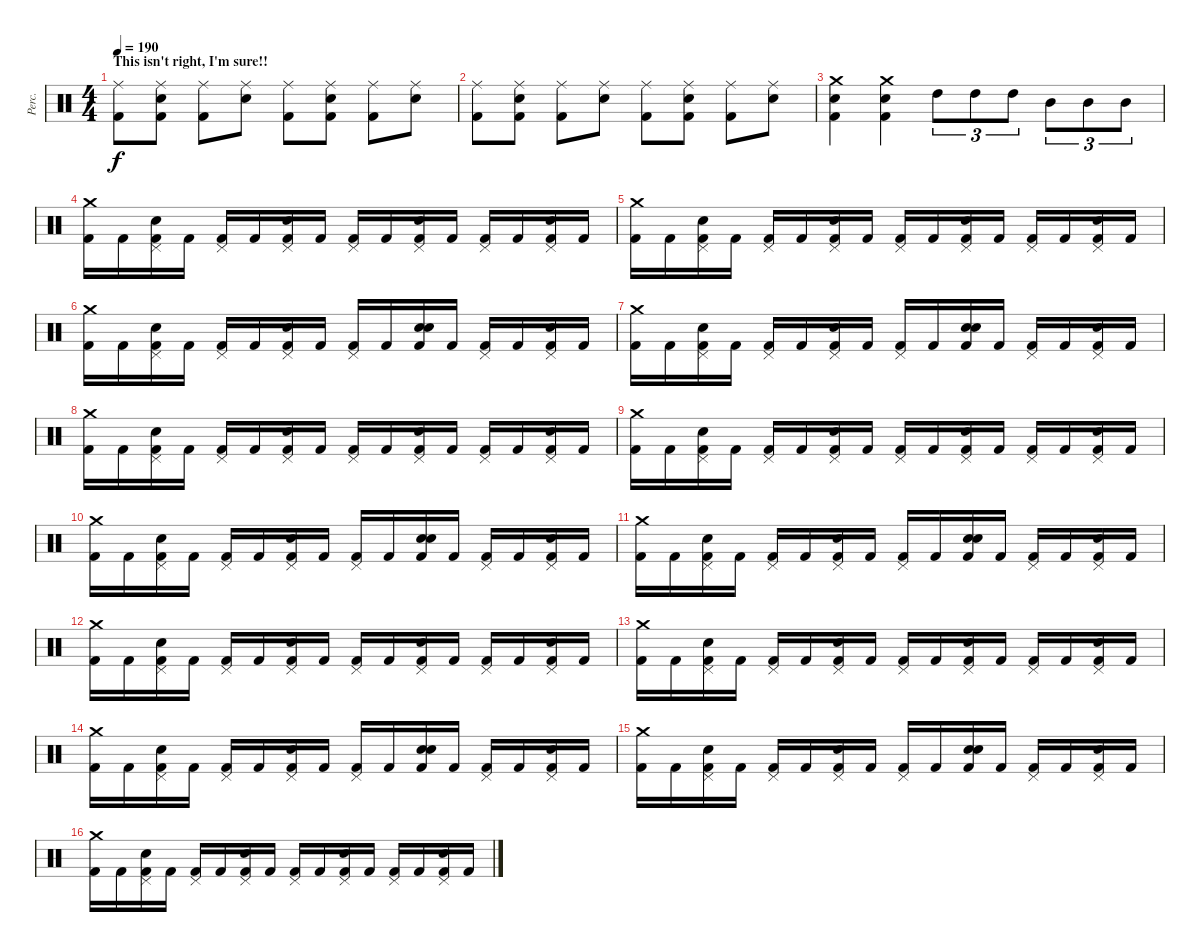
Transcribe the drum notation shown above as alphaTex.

\track ("Perc." "Perc.") {instrument percussion}
\staff {score}
\articulation defaults
\ts (4 4)
\section ("" "This isn't right, I'm sure!!")
\tempo 190
\clef neutral
\ks c
("Kick (hit) 2" "Ride (middle)").8{dy f} ("Kick (hit) 2" "Snare (hit) 2" "Ride (middle)").8 ("Kick (hit) 2" "Ride (middle)").8 ("Snare (hit) 2" "Ride (middle)").8 ("Kick (hit) 2" "Ride (middle)").8 ("Kick (hit) 2" "Snare (hit) 2" "Ride (middle)").8 ("Kick (hit) 2" "Ride (middle)").8 ("Snare (hit) 2" "Ride (middle)").8 |
("Kick (hit) 2" "Ride (middle)").8 ("Kick (hit) 2" "Snare (hit) 2" "Ride (middle)").8 ("Kick (hit) 2" "Ride (middle)").8 ("Snare (hit) 2" "Ride (middle)").8 ("Kick (hit) 2" "Ride (middle)").8 ("Kick (hit) 2" "Snare (hit) 2" "Ride (middle)").8 ("Kick (hit) 2" "Ride (middle)").8 ("Snare (hit) 2" "Ride (middle)").8 |
("Crash medium (hit)" "Kick (hit) 2" "Snare (hit) 2").4 ("Crash medium (hit)" "Kick (hit) 2" "Snare (hit) 2").4 "High Tom (hit)".8{tu (3 2)} "High Tom (hit)".8{tu (3 2)} "High Tom (hit)".8{tu (3 2)} "Mid Tom (hit)".8{tu (3 2)} "Mid Tom (hit)".8{tu (3 2)} "Mid Tom (hit)".8{tu (3 2)} |
("Crash medium (hit)" "Kick (hit) 2").16 "Kick (hit) 2".16 ("Snare (hit) 2" "Kick (hit) 2" "Pedal Hi-Hat (hit)").16 "Kick (hit) 2".16 ("Kick (hit) 2" "Pedal Hi-Hat (hit)").16 "Kick (hit) 2".16 ("Snare (hit) 2" "Kick (hit) 2" "Pedal Hi-Hat (hit)").16 "Kick (hit) 2".16 ("Kick (hit) 2" "Pedal Hi-Hat (hit)").16 "Kick (hit) 2".16 ("Snare (hit) 2" "Kick (hit) 2" "Pedal Hi-Hat (hit)").16 "Kick (hit) 2".16 ("Kick (hit) 2" "Pedal Hi-Hat (hit)").16 "Kick (hit) 2".16 ("Snare (hit) 2" "Kick (hit) 2" "Pedal Hi-Hat (hit)").16 "Kick (hit) 2".16 |
("Crash medium (hit)" "Kick (hit) 2").16 "Kick (hit) 2".16 ("Snare (hit) 2" "Kick (hit) 2" "Pedal Hi-Hat (hit)").16 "Kick (hit) 2".16 ("Kick (hit) 2" "Pedal Hi-Hat (hit)").16 "Kick (hit) 2".16 ("Snare (hit) 2" "Kick (hit) 2" "Pedal Hi-Hat (hit)").16 "Kick (hit) 2".16 ("Kick (hit) 2" "Pedal Hi-Hat (hit)").16 "Kick (hit) 2".16 ("Snare (hit) 2" "Kick (hit) 2" "Pedal Hi-Hat (hit)").16 "Kick (hit) 2".16 ("Kick (hit) 2" "Pedal Hi-Hat (hit)").16 "Kick (hit) 2".16 ("Snare (hit) 2" "Kick (hit) 2" "Pedal Hi-Hat (hit)").16 "Kick (hit) 2".16 |
("Crash medium (hit)" "Kick (hit) 2").16 "Kick (hit) 2".16 ("Snare (hit) 2" "Kick (hit) 2" "Pedal Hi-Hat (hit)").16 "Kick (hit) 2".16 ("Kick (hit) 2" "Pedal Hi-Hat (hit)").16 "Kick (hit) 2".16 ("Snare (hit) 2" "Kick (hit) 2" "Pedal Hi-Hat (hit)").16 "Kick (hit) 2".16 ("Kick (hit) 2" "Pedal Hi-Hat (hit)").16 "Kick (hit) 2".16 ("Snare (hit) 2" "Kick (hit) 2" "Snare (hit)").16 "Kick (hit) 2".16 ("Kick (hit) 2" "Pedal Hi-Hat (hit)").16 "Kick (hit) 2".16 ("Snare (hit) 2" "Kick (hit) 2" "Pedal Hi-Hat (hit)").16 "Kick (hit) 2".16 |
("Crash medium (hit)" "Kick (hit) 2").16 "Kick (hit) 2".16 ("Snare (hit) 2" "Kick (hit) 2" "Pedal Hi-Hat (hit)").16 "Kick (hit) 2".16 ("Kick (hit) 2" "Pedal Hi-Hat (hit)").16 "Kick (hit) 2".16 ("Snare (hit) 2" "Kick (hit) 2" "Pedal Hi-Hat (hit)").16 "Kick (hit) 2".16 ("Kick (hit) 2" "Pedal Hi-Hat (hit)").16 "Kick (hit) 2".16 ("Snare (hit) 2" "Kick (hit) 2" "Snare (hit)").16 "Kick (hit) 2".16 ("Kick (hit) 2" "Pedal Hi-Hat (hit)").16 "Kick (hit) 2".16 ("Snare (hit) 2" "Kick (hit) 2" "Pedal Hi-Hat (hit)").16 "Kick (hit) 2".16 |
("Crash medium (hit)" "Kick (hit) 2").16 "Kick (hit) 2".16 ("Snare (hit) 2" "Kick (hit) 2" "Pedal Hi-Hat (hit)").16 "Kick (hit) 2".16 ("Kick (hit) 2" "Pedal Hi-Hat (hit)").16 "Kick (hit) 2".16 ("Snare (hit) 2" "Kick (hit) 2" "Pedal Hi-Hat (hit)").16 "Kick (hit) 2".16 ("Kick (hit) 2" "Pedal Hi-Hat (hit)").16 "Kick (hit) 2".16 ("Snare (hit) 2" "Kick (hit) 2" "Pedal Hi-Hat (hit)").16 "Kick (hit) 2".16 ("Kick (hit) 2" "Pedal Hi-Hat (hit)").16 "Kick (hit) 2".16 ("Snare (hit) 2" "Kick (hit) 2" "Pedal Hi-Hat (hit)").16 "Kick (hit) 2".16 |
("Crash medium (hit)" "Kick (hit) 2").16 "Kick (hit) 2".16 ("Snare (hit) 2" "Kick (hit) 2" "Pedal Hi-Hat (hit)").16 "Kick (hit) 2".16 ("Kick (hit) 2" "Pedal Hi-Hat (hit)").16 "Kick (hit) 2".16 ("Snare (hit) 2" "Kick (hit) 2" "Pedal Hi-Hat (hit)").16 "Kick (hit) 2".16 ("Kick (hit) 2" "Pedal Hi-Hat (hit)").16 "Kick (hit) 2".16 ("Snare (hit) 2" "Kick (hit) 2" "Pedal Hi-Hat (hit)").16 "Kick (hit) 2".16 ("Kick (hit) 2" "Pedal Hi-Hat (hit)").16 "Kick (hit) 2".16 ("Snare (hit) 2" "Kick (hit) 2" "Pedal Hi-Hat (hit)").16 "Kick (hit) 2".16 |
("Crash medium (hit)" "Kick (hit) 2").16 "Kick (hit) 2".16 ("Snare (hit) 2" "Kick (hit) 2" "Pedal Hi-Hat (hit)").16 "Kick (hit) 2".16 ("Kick (hit) 2" "Pedal Hi-Hat (hit)").16 "Kick (hit) 2".16 ("Snare (hit) 2" "Kick (hit) 2" "Pedal Hi-Hat (hit)").16 "Kick (hit) 2".16 ("Kick (hit) 2" "Pedal Hi-Hat (hit)").16 "Kick (hit) 2".16 ("Snare (hit) 2" "Kick (hit) 2" "Snare (hit)").16 "Kick (hit) 2".16 ("Kick (hit) 2" "Pedal Hi-Hat (hit)").16 "Kick (hit) 2".16 ("Snare (hit) 2" "Kick (hit) 2" "Pedal Hi-Hat (hit)").16 "Kick (hit) 2".16 |
("Crash medium (hit)" "Kick (hit) 2").16 "Kick (hit) 2".16 ("Snare (hit) 2" "Kick (hit) 2" "Pedal Hi-Hat (hit)").16 "Kick (hit) 2".16 ("Kick (hit) 2" "Pedal Hi-Hat (hit)").16 "Kick (hit) 2".16 ("Snare (hit) 2" "Kick (hit) 2" "Pedal Hi-Hat (hit)").16 "Kick (hit) 2".16 ("Kick (hit) 2" "Pedal Hi-Hat (hit)").16 "Kick (hit) 2".16 ("Snare (hit) 2" "Kick (hit) 2" "Snare (hit)").16 "Kick (hit) 2".16 ("Kick (hit) 2" "Pedal Hi-Hat (hit)").16 "Kick (hit) 2".16 ("Snare (hit) 2" "Kick (hit) 2" "Pedal Hi-Hat (hit)").16 "Kick (hit) 2".16 |
("Crash medium (hit)" "Kick (hit) 2").16 "Kick (hit) 2".16 ("Snare (hit) 2" "Kick (hit) 2" "Pedal Hi-Hat (hit)").16 "Kick (hit) 2".16 ("Kick (hit) 2" "Pedal Hi-Hat (hit)").16 "Kick (hit) 2".16 ("Snare (hit) 2" "Kick (hit) 2" "Pedal Hi-Hat (hit)").16 "Kick (hit) 2".16 ("Kick (hit) 2" "Pedal Hi-Hat (hit)").16 "Kick (hit) 2".16 ("Snare (hit) 2" "Kick (hit) 2" "Pedal Hi-Hat (hit)").16 "Kick (hit) 2".16 ("Kick (hit) 2" "Pedal Hi-Hat (hit)").16 "Kick (hit) 2".16 ("Snare (hit) 2" "Kick (hit) 2" "Pedal Hi-Hat (hit)").16 "Kick (hit) 2".16 |
("Crash medium (hit)" "Kick (hit) 2").16 "Kick (hit) 2".16 ("Snare (hit) 2" "Kick (hit) 2" "Pedal Hi-Hat (hit)").16 "Kick (hit) 2".16 ("Kick (hit) 2" "Pedal Hi-Hat (hit)").16 "Kick (hit) 2".16 ("Snare (hit) 2" "Kick (hit) 2" "Pedal Hi-Hat (hit)").16 "Kick (hit) 2".16 ("Kick (hit) 2" "Pedal Hi-Hat (hit)").16 "Kick (hit) 2".16 ("Snare (hit) 2" "Kick (hit) 2" "Pedal Hi-Hat (hit)").16 "Kick (hit) 2".16 ("Kick (hit) 2" "Pedal Hi-Hat (hit)").16 "Kick (hit) 2".16 ("Snare (hit) 2" "Kick (hit) 2" "Pedal Hi-Hat (hit)").16 "Kick (hit) 2".16 |
("Crash medium (hit)" "Kick (hit) 2").16 "Kick (hit) 2".16 ("Snare (hit) 2" "Kick (hit) 2" "Pedal Hi-Hat (hit)").16 "Kick (hit) 2".16 ("Kick (hit) 2" "Pedal Hi-Hat (hit)").16 "Kick (hit) 2".16 ("Snare (hit) 2" "Kick (hit) 2" "Pedal Hi-Hat (hit)").16 "Kick (hit) 2".16 ("Kick (hit) 2" "Pedal Hi-Hat (hit)").16 "Kick (hit) 2".16 ("Snare (hit) 2" "Kick (hit) 2" "Snare (hit)").16 "Kick (hit) 2".16 ("Kick (hit) 2" "Pedal Hi-Hat (hit)").16 "Kick (hit) 2".16 ("Snare (hit) 2" "Kick (hit) 2" "Pedal Hi-Hat (hit)").16 "Kick (hit) 2".16 |
("Crash medium (hit)" "Kick (hit) 2").16 "Kick (hit) 2".16 ("Snare (hit) 2" "Kick (hit) 2" "Pedal Hi-Hat (hit)").16 "Kick (hit) 2".16 ("Kick (hit) 2" "Pedal Hi-Hat (hit)").16 "Kick (hit) 2".16 ("Snare (hit) 2" "Kick (hit) 2" "Pedal Hi-Hat (hit)").16 "Kick (hit) 2".16 ("Kick (hit) 2" "Pedal Hi-Hat (hit)").16 "Kick (hit) 2".16 ("Snare (hit) 2" "Kick (hit) 2" "Snare (hit)").16 "Kick (hit) 2".16 ("Kick (hit) 2" "Pedal Hi-Hat (hit)").16 "Kick (hit) 2".16 ("Snare (hit) 2" "Kick (hit) 2" "Pedal Hi-Hat (hit)").16 "Kick (hit) 2".16 |
("Crash medium (hit)" "Kick (hit) 2").16 "Kick (hit) 2".16 ("Snare (hit) 2" "Kick (hit) 2" "Pedal Hi-Hat (hit)").16 "Kick (hit) 2".16 ("Kick (hit) 2" "Pedal Hi-Hat (hit)").16 "Kick (hit) 2".16 ("Snare (hit) 2" "Kick (hit) 2" "Pedal Hi-Hat (hit)").16 "Kick (hit) 2".16 ("Kick (hit) 2" "Pedal Hi-Hat (hit)").16 "Kick (hit) 2".16 ("Snare (hit) 2" "Kick (hit) 2" "Pedal Hi-Hat (hit)").16 "Kick (hit) 2".16 ("Kick (hit) 2" "Pedal Hi-Hat (hit)").16 "Kick (hit) 2".16 ("Snare (hit) 2" "Kick (hit) 2" "Pedal Hi-Hat (hit)").16 "Kick (hit) 2".16
